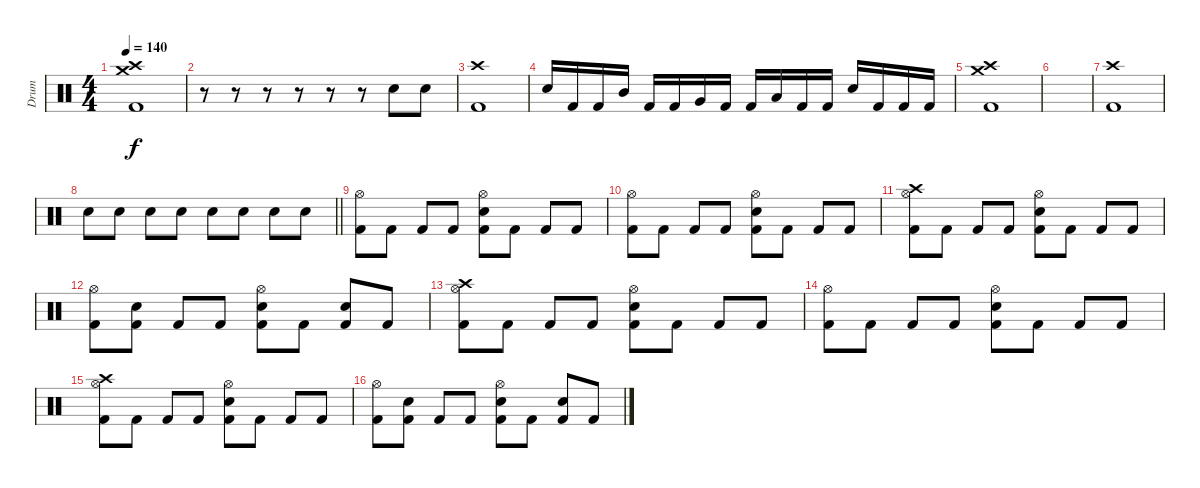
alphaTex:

\track ("Drum" "Drum") {instrument percussion}
\staff {score}
\articulation defaults
\ts (4 4)
\section ("" "")
\tempo 140
\clef neutral
\ks c
("Kick (hit) 2" "Crash medium (hit)" "Crash high (hit)").1{dy f} |
r.8 r.8 r.8 r.8 r.8 r.8 "Snare (hit) 2".8 "Snare (hit) 2".8 |
("Crash high (hit)" "Kick (hit) 2").1 |
"Snare (hit) 2".16 "Kick (hit) 2".16 "Kick (hit) 2".16 "Mid Tom (hit)".16 "Kick (hit) 2".16 "Kick (hit) 2".16 "Very Low Tom (hit)".16 "Kick (hit) 2".16 "Kick (hit) 2".16 "Low Floor Tom (hit)".16 "Kick (hit) 2".16 "Kick (hit) 2".16 "Snare (hit) 2".16 "Kick (hit) 2".16 "Kick (hit) 2".16 "Kick (hit) 2".16 |
("Crash high (hit)" "Crash medium (hit)" "Kick (hit) 2").1 |
|
("Kick (hit) 2" "Crash high (hit)").1 |
\barLineRight lightlight "Snare (hit) 2".8{volume 16} "Snare (hit) 2".8 "Snare (hit) 2".8 "Snare (hit) 2".8 "Snare (hit) 2".8 "Snare (hit) 2".8 "Snare (hit) 2".8 "Snare (hit) 2".8
|
\section ("" "")
("Kick (hit) 2" "Hi-Hat (open)").8 "Kick (hit) 2".8 "Kick (hit) 2".8 "Kick (hit) 2".8 ("Kick (hit) 2" "Snare (hit) 2" "Hi-Hat (open)").8 "Kick (hit) 2".8 "Kick (hit) 2".8 "Kick (hit) 2".8 |
("Kick (hit) 2" "Hi-Hat (open)").8 "Kick (hit) 2".8 "Kick (hit) 2".8 "Kick (hit) 2".8 ("Kick (hit) 2" "Snare (hit) 2" "Hi-Hat (open)").8 "Kick (hit) 2".8 "Kick (hit) 2".8 "Kick (hit) 2".8 |
("Kick (hit) 2" "Crash high (hit)" "Hi-Hat (open)").8 "Kick (hit) 2".8 "Kick (hit) 2".8 "Kick (hit) 2".8 ("Kick (hit) 2" "Snare (hit) 2" "Hi-Hat (open)").8 "Kick (hit) 2".8 "Kick (hit) 2".8 "Kick (hit) 2".8 |
("Kick (hit) 2" "Hi-Hat (open)").8 ("Kick (hit) 2" "Snare (hit) 2").8 "Kick (hit) 2".8 "Kick (hit) 2".8 ("Kick (hit) 2" "Snare (hit) 2" "Hi-Hat (open)").8 "Kick (hit) 2".8 ("Kick (hit) 2" "Snare (hit) 2").8 "Kick (hit) 2".8 |
("Kick (hit) 2" "Crash high (hit)" "Hi-Hat (open)").8 "Kick (hit) 2".8 "Kick (hit) 2".8 "Kick (hit) 2".8 ("Kick (hit) 2" "Snare (hit) 2" "Hi-Hat (open)").8 "Kick (hit) 2".8 "Kick (hit) 2".8 "Kick (hit) 2".8 |
("Kick (hit) 2" "Hi-Hat (open)").8 "Kick (hit) 2".8 "Kick (hit) 2".8 "Kick (hit) 2".8 ("Kick (hit) 2" "Snare (hit) 2" "Hi-Hat (open)").8 "Kick (hit) 2".8 "Kick (hit) 2".8 "Kick (hit) 2".8 |
("Kick (hit) 2" "Crash high (hit)" "Hi-Hat (open)").8 "Kick (hit) 2".8 "Kick (hit) 2".8 "Kick (hit) 2".8 ("Kick (hit) 2" "Snare (hit) 2" "Hi-Hat (open)").8 "Kick (hit) 2".8 "Kick (hit) 2".8 "Kick (hit) 2".8 |
("Kick (hit) 2" "Hi-Hat (open)").8 ("Kick (hit) 2" "Snare (hit) 2").8 "Kick (hit) 2".8 "Kick (hit) 2".8 ("Kick (hit) 2" "Snare (hit) 2" "Hi-Hat (open)").8 "Kick (hit) 2".8 ("Kick (hit) 2" "Snare (hit) 2").8 "Kick (hit) 2".8
